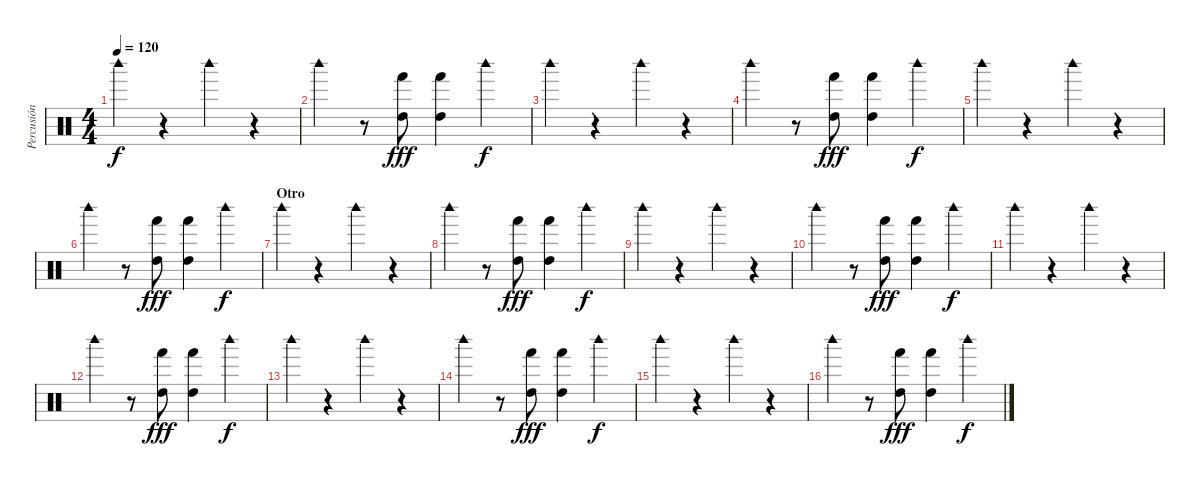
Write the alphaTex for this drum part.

\track ("Percusión" "Percusión") {instrument percussion}
\staff {score}
\articulation defaults
\ts (4 4)
\tempo 120
\clef neutral
\ks c "Woodblock high (hit)".4{dy f}
r.4 "Woodblock high (hit)".4 r.4 |
"Woodblock high (hit)".4 r.8 ("Hand (hit)" "High Tom (hit)").8{dy fff} ("Hand (hit)" "High Tom (hit)").4 "Woodblock high (hit)".4{dy f} |
"Woodblock high (hit)".4 r.4 "Woodblock high (hit)".4 r.4 |
"Woodblock high (hit)".4 r.8 ("Hand (hit)" "High Tom (hit)").8{dy fff} ("Hand (hit)" "High Tom (hit)").4 "Woodblock high (hit)".4{dy f} |
"Woodblock high (hit)".4 r.4 "Woodblock high (hit)".4 r.4 |
"Woodblock high (hit)".4 r.8 ("Hand (hit)" "High Tom (hit)").8{dy fff} ("Hand (hit)" "High Tom (hit)").4 "Woodblock high (hit)".4{dy f} |
\section ("" "Otro")
"Woodblock high (hit)".4 r.4 "Woodblock high (hit)".4 r.4 |
"Woodblock high (hit)".4 r.8 ("Hand (hit)" "High Tom (hit)").8{dy fff} ("Hand (hit)" "High Tom (hit)").4 "Woodblock high (hit)".4{dy f} |
"Woodblock high (hit)".4 r.4 "Woodblock high (hit)".4 r.4 |
"Woodblock high (hit)".4 r.8 ("Hand (hit)" "High Tom (hit)").8{dy fff} ("Hand (hit)" "High Tom (hit)").4 "Woodblock high (hit)".4{dy f} |
"Woodblock high (hit)".4 r.4 "Woodblock high (hit)".4 r.4 |
"Woodblock high (hit)".4 r.8 ("Hand (hit)" "High Tom (hit)").8{dy fff} ("Hand (hit)" "High Tom (hit)").4 "Woodblock high (hit)".4{dy f} |
"Woodblock high (hit)".4 r.4 "Woodblock high (hit)".4 r.4 |
"Woodblock high (hit)".4 r.8 ("Hand (hit)" "High Tom (hit)").8{dy fff} ("Hand (hit)" "High Tom (hit)").4 "Woodblock high (hit)".4{dy f} |
"Woodblock high (hit)".4 r.4 "Woodblock high (hit)".4 r.4 |
"Woodblock high (hit)".4 r.8 ("Hand (hit)" "High Tom (hit)").8{dy fff} ("Hand (hit)" "High Tom (hit)").4 "Woodblock high (hit)".4{dy f}
